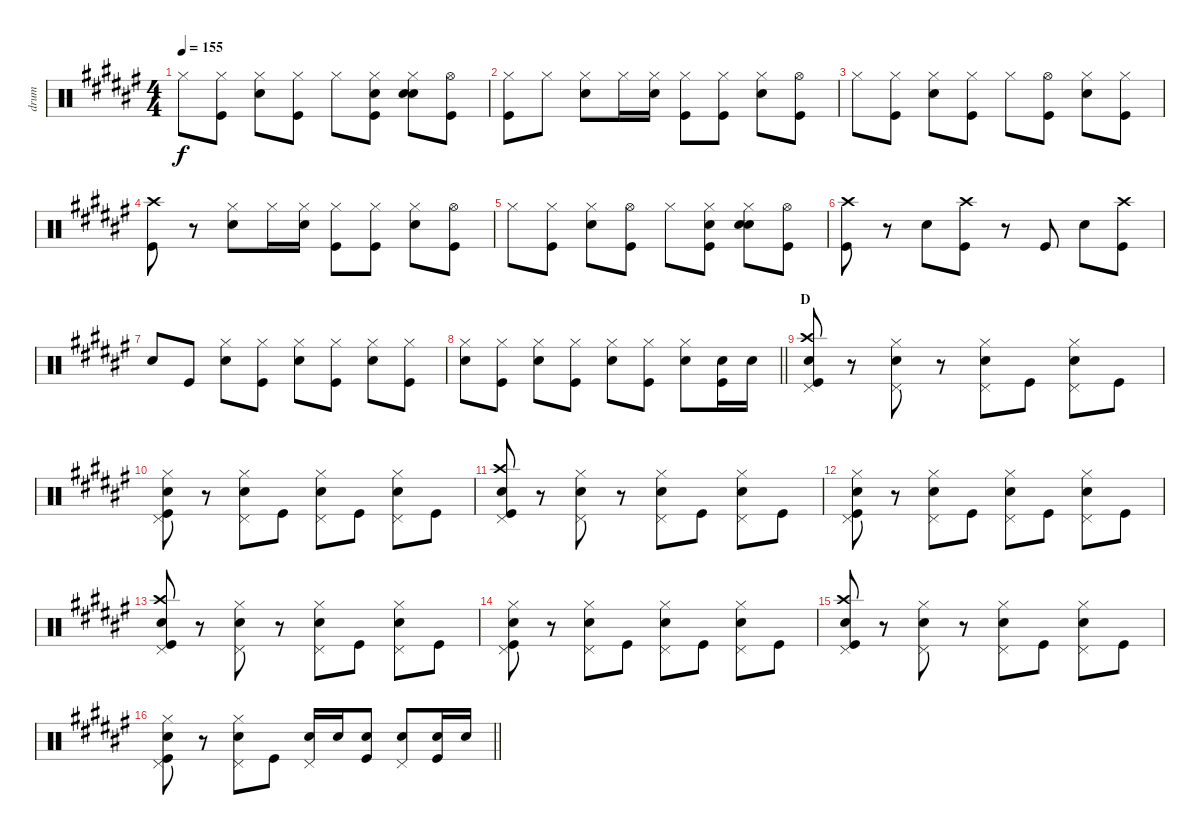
\track ("drum" "drum") {instrument percussion}
\staff {score}
\articulation defaults
\ts (4 4)
\tempo 155
\clef neutral
\ks f# "Hi-Hat (closed)".8{dy f}
("Hi-Hat (closed)" "Kick (hit)").8 ("Hi-Hat (closed)" "Snare (hit) 2").8 ("Hi-Hat (closed)" "Kick (hit)").8 "Hi-Hat (closed)".8 ("Hi-Hat (closed)" "Hand Clap (hit)" "Kick (hit)").8 ("Hi-Hat (closed)" "Snare (hit) 2" "Hand Clap (hit)").8 ("Hi-Hat (open)" "Kick (hit)").8 |
("Hi-Hat (closed)" "Kick (hit)").8 "Hi-Hat (closed)".8 ("Hi-Hat (closed)" "Snare (hit) 2").8 "Hi-Hat (closed)".16 ("Hi-Hat (closed)" "Snare (hit) 2").16 ("Hi-Hat (closed)" "Kick (hit)").8 ("Hi-Hat (closed)" "Kick (hit)").8 ("Hi-Hat (closed)" "Snare (hit) 2").8 ("Hi-Hat (open)" "Kick (hit)").8 |
"Hi-Hat (closed)".8 ("Hi-Hat (closed)" "Kick (hit)").8 ("Hi-Hat (closed)" "Snare (hit) 2").8 ("Hi-Hat (closed)" "Kick (hit)").8 "Hi-Hat (closed)".8 ("Hi-Hat (open)" "Kick (hit)").8 ("Hi-Hat (closed)" "Snare (hit) 2").8 ("Hi-Hat (closed)" "Kick (hit)").8 |
("Crash high (hit)" "Kick (hit)").8 r.8 ("Hi-Hat (closed)" "Snare (hit) 2").8 "Hi-Hat (closed)".16 ("Hi-Hat (closed)" "Snare (hit) 2").16 ("Hi-Hat (closed)" "Kick (hit)").8 ("Hi-Hat (closed)" "Kick (hit)").8 ("Hi-Hat (closed)" "Snare (hit) 2").8 ("Hi-Hat (open)" "Kick (hit)").8 |
"Hi-Hat (closed)".8 ("Hi-Hat (closed)" "Kick (hit)").8 ("Hi-Hat (closed)" "Snare (hit) 2").8 ("Hi-Hat (open)" "Kick (hit)").8 "Hi-Hat (closed)".8 ("Hi-Hat (closed)" "Hand Clap (hit)" "Kick (hit)").8 ("Hi-Hat (closed)" "Snare (hit) 2" "Hand Clap (hit)").8 ("Hi-Hat (open)" "Kick (hit)").8 |
("Crash high (hit)" "Kick (hit)").8 r.8 "Snare (hit) 2".8 ("Crash high (hit)" "Kick (hit)").8 r.8 "Kick (hit)".8 "Snare (hit) 2".8 ("Crash high (hit)" "Kick (hit)").8 |
"Snare (hit) 2".8 "Kick (hit)".8 ("Hi-Hat (closed)" "Snare (hit) 2").8 ("Hi-Hat (closed)" "Kick (hit)").8 ("Hi-Hat (closed)" "Snare (hit) 2").8 ("Hi-Hat (closed)" "Kick (hit)").8 ("Hi-Hat (closed)" "Snare (hit) 2").8 ("Hi-Hat (closed)" "Kick (hit)").8 |
\barLineRight lightlight
("Hi-Hat (closed)" "Snare (hit) 2").8 ("Hi-Hat (closed)" "Kick (hit)").8 ("Hi-Hat (closed)" "Snare (hit) 2").8 ("Hi-Hat (closed)" "Kick (hit)").8 ("Hi-Hat (closed)" "Snare (hit) 2").8 ("Hi-Hat (closed)" "Kick (hit)").8 ("Hi-Hat (closed)" "Snare (hit) 2").8 ("Snare (hit) 2" "Kick (hit)").16 "Snare (hit) 2".16 |
\section ("" "D")
("Crash high (hit)" "Snare (hit) 2" "Pedal Hi-Hat (hit)" "Kick (hit)").8 r.8 ("Hi-Hat (closed)" "Snare (hit) 2" "Pedal Hi-Hat (hit)").8 r.8 ("Hi-Hat (closed)" "Snare (hit) 2" "Pedal Hi-Hat (hit)").8 "Kick (hit)".8 ("Hi-Hat (closed)" "Snare (hit) 2" "Pedal Hi-Hat (hit)").8 "Kick (hit)".8 |
("Hi-Hat (closed)" "Snare (hit) 2" "Pedal Hi-Hat (hit)" "Kick (hit)").8 r.8 ("Hi-Hat (closed)" "Snare (hit) 2" "Pedal Hi-Hat (hit)").8 "Kick (hit)".8 ("Hi-Hat (closed)" "Snare (hit) 2" "Pedal Hi-Hat (hit)").8 "Kick (hit)".8 ("Hi-Hat (closed)" "Snare (hit) 2" "Pedal Hi-Hat (hit)").8 "Kick (hit)".8 |
("Crash high (hit)" "Snare (hit) 2" "Pedal Hi-Hat (hit)" "Kick (hit)").8 r.8 ("Hi-Hat (closed)" "Snare (hit) 2" "Pedal Hi-Hat (hit)").8 r.8 ("Hi-Hat (closed)" "Snare (hit) 2" "Pedal Hi-Hat (hit)").8 "Kick (hit)".8 ("Hi-Hat (closed)" "Snare (hit) 2" "Pedal Hi-Hat (hit)").8 "Kick (hit)".8 |
("Hi-Hat (closed)" "Snare (hit) 2" "Pedal Hi-Hat (hit)" "Kick (hit)").8 r.8 ("Hi-Hat (closed)" "Snare (hit) 2" "Pedal Hi-Hat (hit)").8 "Kick (hit)".8 ("Hi-Hat (closed)" "Snare (hit) 2" "Pedal Hi-Hat (hit)").8 "Kick (hit)".8 ("Hi-Hat (closed)" "Snare (hit) 2" "Pedal Hi-Hat (hit)").8 "Kick (hit)".8 |
("Crash high (hit)" "Snare (hit) 2" "Pedal Hi-Hat (hit)" "Kick (hit)").8 r.8 ("Hi-Hat (closed)" "Snare (hit) 2" "Pedal Hi-Hat (hit)").8 r.8 ("Hi-Hat (closed)" "Snare (hit) 2" "Pedal Hi-Hat (hit)").8 "Kick (hit)".8 ("Hi-Hat (closed)" "Snare (hit) 2" "Pedal Hi-Hat (hit)").8 "Kick (hit)".8 |
("Hi-Hat (closed)" "Snare (hit) 2" "Pedal Hi-Hat (hit)" "Kick (hit)").8 r.8 ("Hi-Hat (closed)" "Snare (hit) 2" "Pedal Hi-Hat (hit)").8 "Kick (hit)".8 ("Hi-Hat (closed)" "Snare (hit) 2" "Pedal Hi-Hat (hit)").8 "Kick (hit)".8 ("Hi-Hat (closed)" "Snare (hit) 2" "Pedal Hi-Hat (hit)").8 "Kick (hit)".8 |
("Crash high (hit)" "Snare (hit) 2" "Pedal Hi-Hat (hit)" "Kick (hit)").8 r.8 ("Hi-Hat (closed)" "Snare (hit) 2" "Pedal Hi-Hat (hit)").8 r.8 ("Hi-Hat (closed)" "Snare (hit) 2" "Pedal Hi-Hat (hit)").8 "Kick (hit)".8 ("Hi-Hat (closed)" "Snare (hit) 2" "Pedal Hi-Hat (hit)").8 "Kick (hit)".8 |
\barLineRight lightlight
("Hi-Hat (closed)" "Snare (hit) 2" "Pedal Hi-Hat (hit)" "Kick (hit)").8 r.8 ("Hi-Hat (closed)" "Snare (hit) 2" "Pedal Hi-Hat (hit)").8 "Kick (hit)".8 ("Snare (hit) 2" "Pedal Hi-Hat (hit)").16 "Snare (hit) 2".16 ("Snare (hit) 2" "Kick (hit)").8 ("Snare (hit) 2" "Pedal Hi-Hat (hit)").8 ("Snare (hit) 2" "Kick (hit)").16 "Snare (hit) 2".16
